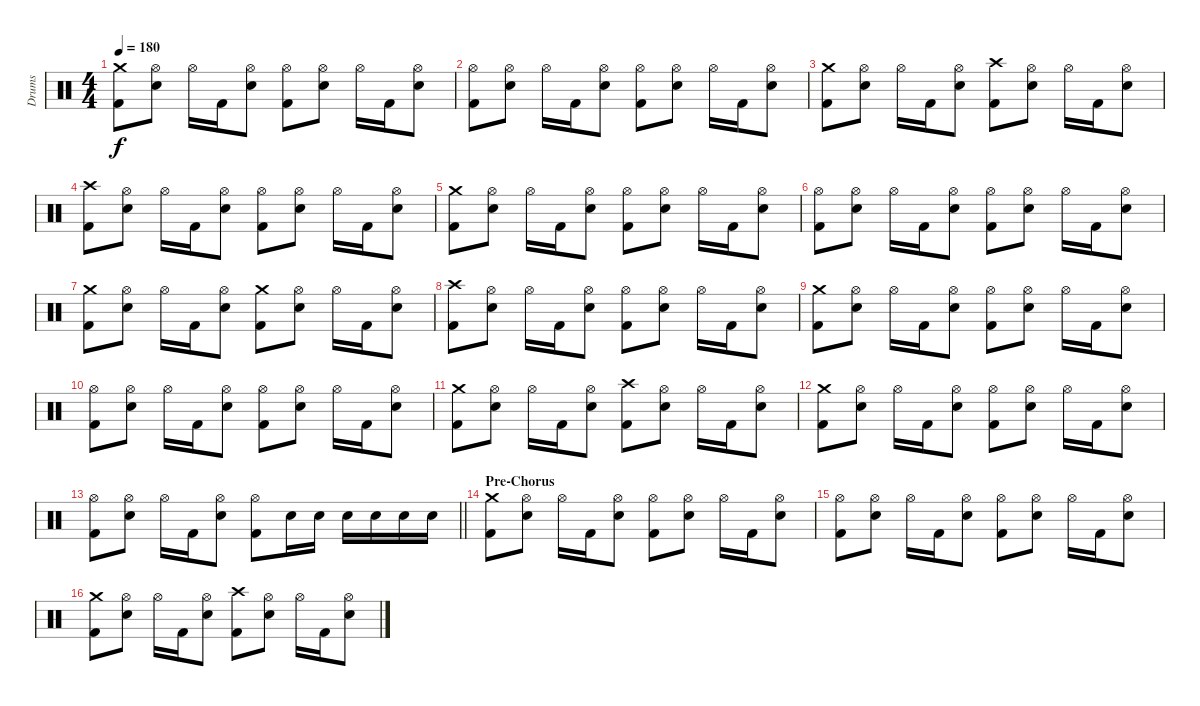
\track ("Drums" "Drums") {instrument percussion}
\staff {score}
\articulation defaults
\ts (4 4)
\tempo 180
\clef neutral
\ks c
("Crash medium (hit)" "Kick (hit) 2").8{dy f} ("Hi-Hat (open)" "Electric Snare (hit)").8 "Hi-Hat (open)".16 "Kick (hit) 2".16 ("Hi-Hat (open)" "Electric Snare (hit)").8 ("Hi-Hat (open)" "Kick (hit) 2").8 ("Hi-Hat (open)" "Electric Snare (hit)").8 "Hi-Hat (open)".16 "Kick (hit) 2".16 ("Hi-Hat (open)" "Electric Snare (hit)").8 |
("Hi-Hat (open)" "Kick (hit) 2").8 ("Hi-Hat (open)" "Electric Snare (hit)").8 "Hi-Hat (open)".16 "Kick (hit) 2".16 ("Hi-Hat (open)" "Electric Snare (hit)").8 ("Hi-Hat (open)" "Kick (hit) 2").8 ("Hi-Hat (open)" "Electric Snare (hit)").8 "Hi-Hat (open)".16 "Kick (hit) 2".16 ("Hi-Hat (open)" "Electric Snare (hit)").8 |
("Crash medium (hit)" "Kick (hit) 2").8 ("Hi-Hat (open)" "Electric Snare (hit)").8 "Hi-Hat (open)".16 "Kick (hit) 2".16 ("Hi-Hat (open)" "Electric Snare (hit)").8 ("Crash high (hit)" "Kick (hit) 2").8 ("Hi-Hat (open)" "Electric Snare (hit)").8 "Hi-Hat (open)".16 "Kick (hit) 2".16 ("Hi-Hat (open)" "Electric Snare (hit)").8 |
("Crash high (hit)" "Kick (hit) 2").8 ("Hi-Hat (open)" "Electric Snare (hit)").8 "Hi-Hat (open)".16 "Kick (hit) 2".16 ("Hi-Hat (open)" "Electric Snare (hit)").8 ("Hi-Hat (open)" "Kick (hit) 2").8 ("Hi-Hat (open)" "Electric Snare (hit)").8 "Hi-Hat (open)".16 "Kick (hit) 2".16 ("Hi-Hat (open)" "Electric Snare (hit)").8 |
("Crash medium (hit)" "Kick (hit) 2").8 ("Hi-Hat (open)" "Electric Snare (hit)").8 "Hi-Hat (open)".16 "Kick (hit) 2".16 ("Hi-Hat (open)" "Electric Snare (hit)").8 ("Hi-Hat (open)" "Kick (hit) 2").8 ("Hi-Hat (open)" "Electric Snare (hit)").8 "Hi-Hat (open)".16 "Kick (hit) 2".16 ("Hi-Hat (open)" "Electric Snare (hit)").8 |
("Hi-Hat (open)" "Kick (hit) 2").8 ("Hi-Hat (open)" "Electric Snare (hit)").8 "Hi-Hat (open)".16 "Kick (hit) 2".16 ("Hi-Hat (open)" "Electric Snare (hit)").8 ("Hi-Hat (open)" "Kick (hit) 2").8 ("Hi-Hat (open)" "Electric Snare (hit)").8 "Hi-Hat (open)".16 "Kick (hit) 2".16 ("Hi-Hat (open)" "Electric Snare (hit)").8 |
("Crash medium (hit)" "Kick (hit) 2").8 ("Hi-Hat (open)" "Electric Snare (hit)").8 "Hi-Hat (open)".16 "Kick (hit) 2".16 ("Hi-Hat (open)" "Electric Snare (hit)").8 ("Crash medium (hit)" "Kick (hit) 2").8 ("Hi-Hat (open)" "Electric Snare (hit)").8 "Hi-Hat (open)".16 "Kick (hit) 2".16 ("Hi-Hat (open)" "Electric Snare (hit)").8 |
("Crash high (hit)" "Kick (hit) 2").8 ("Hi-Hat (open)" "Electric Snare (hit)").8 "Hi-Hat (open)".16 "Kick (hit) 2".16 ("Hi-Hat (open)" "Electric Snare (hit)").8 ("Hi-Hat (open)" "Kick (hit) 2").8 ("Hi-Hat (open)" "Electric Snare (hit)").8 "Hi-Hat (open)".16 "Kick (hit) 2".16 ("Hi-Hat (open)" "Electric Snare (hit)").8 |
("Crash medium (hit)" "Kick (hit) 2").8 ("Hi-Hat (open)" "Electric Snare (hit)").8 "Hi-Hat (open)".16 "Kick (hit) 2".16 ("Hi-Hat (open)" "Electric Snare (hit)").8 ("Hi-Hat (open)" "Kick (hit) 2").8 ("Hi-Hat (open)" "Electric Snare (hit)").8 "Hi-Hat (open)".16 "Kick (hit) 2".16 ("Hi-Hat (open)" "Electric Snare (hit)").8 |
("Hi-Hat (open)" "Kick (hit) 2").8 ("Hi-Hat (open)" "Electric Snare (hit)").8 "Hi-Hat (open)".16 "Kick (hit) 2".16 ("Hi-Hat (open)" "Electric Snare (hit)").8 ("Hi-Hat (open)" "Kick (hit) 2").8 ("Hi-Hat (open)" "Electric Snare (hit)").8 "Hi-Hat (open)".16 "Kick (hit) 2".16 ("Hi-Hat (open)" "Electric Snare (hit)").8 |
("Crash medium (hit)" "Kick (hit) 2").8 ("Hi-Hat (open)" "Electric Snare (hit)").8 "Hi-Hat (open)".16 "Kick (hit) 2".16 ("Hi-Hat (open)" "Electric Snare (hit)").8 ("Crash high (hit)" "Kick (hit) 2").8 ("Hi-Hat (open)" "Electric Snare (hit)").8 "Hi-Hat (open)".16 "Kick (hit) 2".16 ("Hi-Hat (open)" "Electric Snare (hit)").8 |
("Crash medium (hit)" "Kick (hit) 2").8 ("Hi-Hat (open)" "Electric Snare (hit)").8 "Hi-Hat (open)".16 "Kick (hit) 2".16 ("Hi-Hat (open)" "Electric Snare (hit)").8 ("Hi-Hat (open)" "Kick (hit) 2").8 ("Hi-Hat (open)" "Electric Snare (hit)").8 "Hi-Hat (open)".16 "Kick (hit) 2".16 ("Hi-Hat (open)" "Electric Snare (hit)").8 |
\barLineRight lightlight
("Hi-Hat (open)" "Kick (hit) 2").8 ("Hi-Hat (open)" "Electric Snare (hit)").8 "Hi-Hat (open)".16 "Kick (hit) 2".16 ("Hi-Hat (open)" "Electric Snare (hit)").8 ("Hi-Hat (open)" "Kick (hit) 2").8 "Electric Snare (hit)".16 "Electric Snare (hit)".16 "Electric Snare (hit)".16 "Electric Snare (hit)".16 "Electric Snare (hit)".16 "Electric Snare (hit)".16 |
\section ("" "Pre-Chorus")
("Crash medium (hit)" "Kick (hit) 2").8 ("Hi-Hat (open)" "Electric Snare (hit)").8 "Hi-Hat (open)".16 "Kick (hit) 2".16 ("Hi-Hat (open)" "Electric Snare (hit)").8 ("Hi-Hat (open)" "Kick (hit) 2").8 ("Hi-Hat (open)" "Electric Snare (hit)").8 "Hi-Hat (open)".16 "Kick (hit) 2".16 ("Hi-Hat (open)" "Electric Snare (hit)").8 |
("Hi-Hat (open)" "Kick (hit) 2").8 ("Hi-Hat (open)" "Electric Snare (hit)").8 "Hi-Hat (open)".16 "Kick (hit) 2".16 ("Hi-Hat (open)" "Electric Snare (hit)").8 ("Hi-Hat (open)" "Kick (hit) 2").8 ("Hi-Hat (open)" "Electric Snare (hit)").8 "Hi-Hat (open)".16 "Kick (hit) 2".16 ("Hi-Hat (open)" "Electric Snare (hit)").8 |
("Crash medium (hit)" "Kick (hit) 2").8 ("Hi-Hat (open)" "Electric Snare (hit)").8 "Hi-Hat (open)".16 "Kick (hit) 2".16 ("Hi-Hat (open)" "Electric Snare (hit)").8 ("Crash high (hit)" "Kick (hit) 2").8 ("Hi-Hat (open)" "Electric Snare (hit)").8 "Hi-Hat (open)".16 "Kick (hit) 2".16 ("Hi-Hat (open)" "Electric Snare (hit)").8
